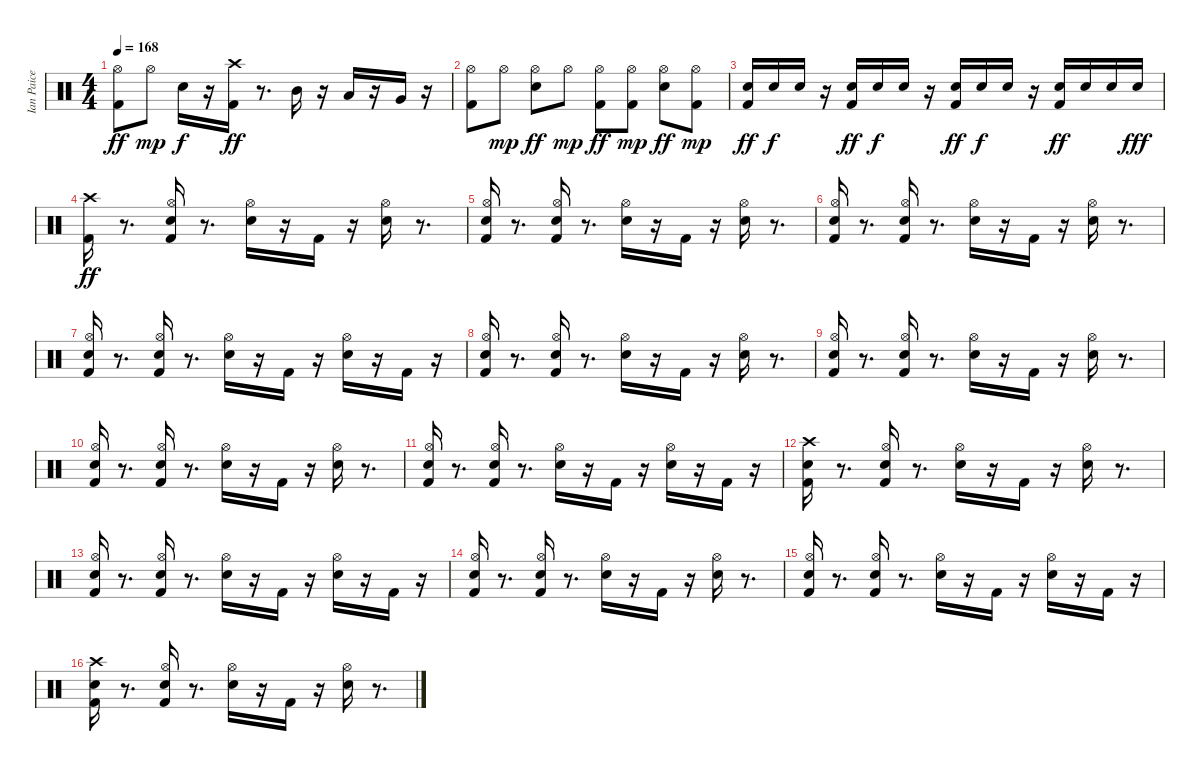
\track ("Ian Paice" "Ian Paice") {instrument percussion}
\staff {score}
\articulation defaults
\ts (4 4)
\tempo 168
\clef neutral
\ks c
("Kick (hit) 2" "Hi-Hat (open)").8{dy ff} "Hi-Hat (open)".8{dy mp} "Electric Snare (hit)".16{dy f} r.16 ("Kick (hit) 2" "Crash high (hit)").16{dy ff} r.8{d} "Mid Tom (hit)".16 r.16 "Low Tom (hit)".16 r.16 "Very Low Tom (hit)".16 r.16 |
("Kick (hit) 2" "Hi-Hat (open)").8 "Hi-Hat (open)".8{dy mp} ("Hi-Hat (open)" "Electric Snare (hit)").8{dy ff} "Hi-Hat (open)".8{dy mp} ("Kick (hit) 2" "Hi-Hat (open)").8{dy ff} ("Kick (hit) 2" "Hi-Hat (open)").8{dy mp} ("Hi-Hat (open)" "Electric Snare (hit)").8{dy ff} ("Kick (hit) 2" "Hi-Hat (open)").8{dy mp} |
("Kick (hit) 2" "Electric Snare (hit)").16{dy ff} "Electric Snare (hit)".16{dy f} "Electric Snare (hit)".16 r.16 ("Kick (hit) 2" "Electric Snare (hit)").16{dy ff} "Electric Snare (hit)".16{dy f} "Electric Snare (hit)".16 r.16 ("Kick (hit) 2" "Electric Snare (hit)").16{dy ff} "Electric Snare (hit)".16{dy f} "Electric Snare (hit)".16 r.16 ("Kick (hit) 2" "Electric Snare (hit)").16{dy ff} "Electric Snare (hit)".16 "Electric Snare (hit)".16 "Electric Snare (hit)".16{dy fff} |
("Kick (hit) 2" "Crash high (hit)").16{dy ff} r.8{d} ("Electric Snare (hit)" "Kick (hit) 2" "Hi-Hat (open)").16 r.8{d} ("Electric Snare (hit)" "Hi-Hat (open)").16 r.16 "Kick (hit) 2".16 r.16 ("Electric Snare (hit)" "Hi-Hat (open)").16 r.8{d} |
("Electric Snare (hit)" "Kick (hit) 2" "Hi-Hat (open)").16 r.8{d} ("Electric Snare (hit)" "Kick (hit) 2" "Hi-Hat (open)").16 r.8{d} ("Electric Snare (hit)" "Hi-Hat (open)").16 r.16 "Kick (hit) 2".16 r.16 ("Electric Snare (hit)" "Hi-Hat (open)").16 r.8{d} |
("Electric Snare (hit)" "Kick (hit) 2" "Hi-Hat (open)").16 r.8{d} ("Electric Snare (hit)" "Kick (hit) 2" "Hi-Hat (open)").16 r.8{d} ("Electric Snare (hit)" "Hi-Hat (open)").16 r.16 "Kick (hit) 2".16 r.16 ("Electric Snare (hit)" "Hi-Hat (open)").16 r.8{d} |
("Kick (hit) 2" "Hi-Hat (open)" "Electric Snare (hit)").16 r.8{d} ("Kick (hit) 2" "Hi-Hat (open)" "Electric Snare (hit)").16 r.8{d} ("Electric Snare (hit)" "Hi-Hat (open)").16 r.16 "Kick (hit) 2".16 r.16 ("Electric Snare (hit)" "Hi-Hat (open)").16 r.16 "Kick (hit) 2".16 r.16 |
("Kick (hit) 2" "Hi-Hat (open)" "Electric Snare (hit)").16 r.8{d} ("Kick (hit) 2" "Hi-Hat (open)" "Electric Snare (hit)").16 r.8{d} ("Hi-Hat (open)" "Electric Snare (hit)").16 r.16 "Kick (hit) 2".16 r.16 ("Hi-Hat (open)" "Electric Snare (hit)").16 r.8{d} |
("Kick (hit) 2" "Hi-Hat (open)" "Electric Snare (hit)").16 r.8{d} ("Electric Snare (hit)" "Kick (hit) 2" "Hi-Hat (open)").16 r.8{d} ("Electric Snare (hit)" "Hi-Hat (open)").16 r.16 "Kick (hit) 2".16 r.16 ("Electric Snare (hit)" "Hi-Hat (open)").16 r.8{d} |
("Kick (hit) 2" "Hi-Hat (open)" "Electric Snare (hit)").16 r.8{d} ("Kick (hit) 2" "Hi-Hat (open)" "Electric Snare (hit)").16 r.8{d} ("Electric Snare (hit)" "Hi-Hat (open)").16 r.16 "Kick (hit) 2".16 r.16 ("Electric Snare (hit)" "Hi-Hat (open)").16 r.8{d} |
("Kick (hit) 2" "Hi-Hat (open)" "Electric Snare (hit)").16 r.8{d} ("Kick (hit) 2" "Hi-Hat (open)" "Electric Snare (hit)").16 r.8{d} ("Electric Snare (hit)" "Hi-Hat (open)").16 r.16 "Kick (hit) 2".16 r.16 ("Hi-Hat (open)" "Electric Snare (hit)").16 r.16 "Kick (hit) 2".16 r.16 |
("Kick (hit) 2" "Crash high (hit)" "Electric Snare (hit)").16 r.8{d} ("Electric Snare (hit)" "Kick (hit) 2" "Hi-Hat (open)").16 r.8{d} ("Hi-Hat (open)" "Electric Snare (hit)").16 r.16 "Kick (hit) 2".16 r.16 ("Electric Snare (hit)" "Hi-Hat (open)").16 r.8{d} |
("Kick (hit) 2" "Hi-Hat (open)" "Electric Snare (hit)").16 r.8{d} ("Electric Snare (hit)" "Kick (hit) 2" "Hi-Hat (open)").16 r.8{d} ("Hi-Hat (open)" "Electric Snare (hit)").16 r.16 "Kick (hit) 2".16 r.16 ("Electric Snare (hit)" "Hi-Hat (open)").16 r.16 "Kick (hit) 2".16 r.16 |
("Electric Snare (hit)" "Kick (hit) 2" "Hi-Hat (open)").16 r.8{d} ("Kick (hit) 2" "Hi-Hat (open)" "Electric Snare (hit)").16 r.8{d} ("Electric Snare (hit)" "Hi-Hat (open)").16 r.16 "Kick (hit) 2".16 r.16 ("Hi-Hat (open)" "Electric Snare (hit)").16 r.8{d} |
("Electric Snare (hit)" "Kick (hit) 2" "Hi-Hat (open)").16 r.8{d} ("Kick (hit) 2" "Hi-Hat (open)" "Electric Snare (hit)").16 r.8{d} ("Hi-Hat (open)" "Electric Snare (hit)").16 r.16 "Kick (hit) 2".16 r.16 ("Hi-Hat (open)" "Electric Snare (hit)").16 r.16 "Kick (hit) 2".16 r.16 |
("Kick (hit) 2" "Crash high (hit)" "Electric Snare (hit)").16 r.8{d} ("Kick (hit) 2" "Hi-Hat (open)" "Electric Snare (hit)").16 r.8{d} ("Hi-Hat (open)" "Electric Snare (hit)").16 r.16 "Kick (hit) 2".16 r.16 ("Hi-Hat (open)" "Electric Snare (hit)").16 r.8{d}
